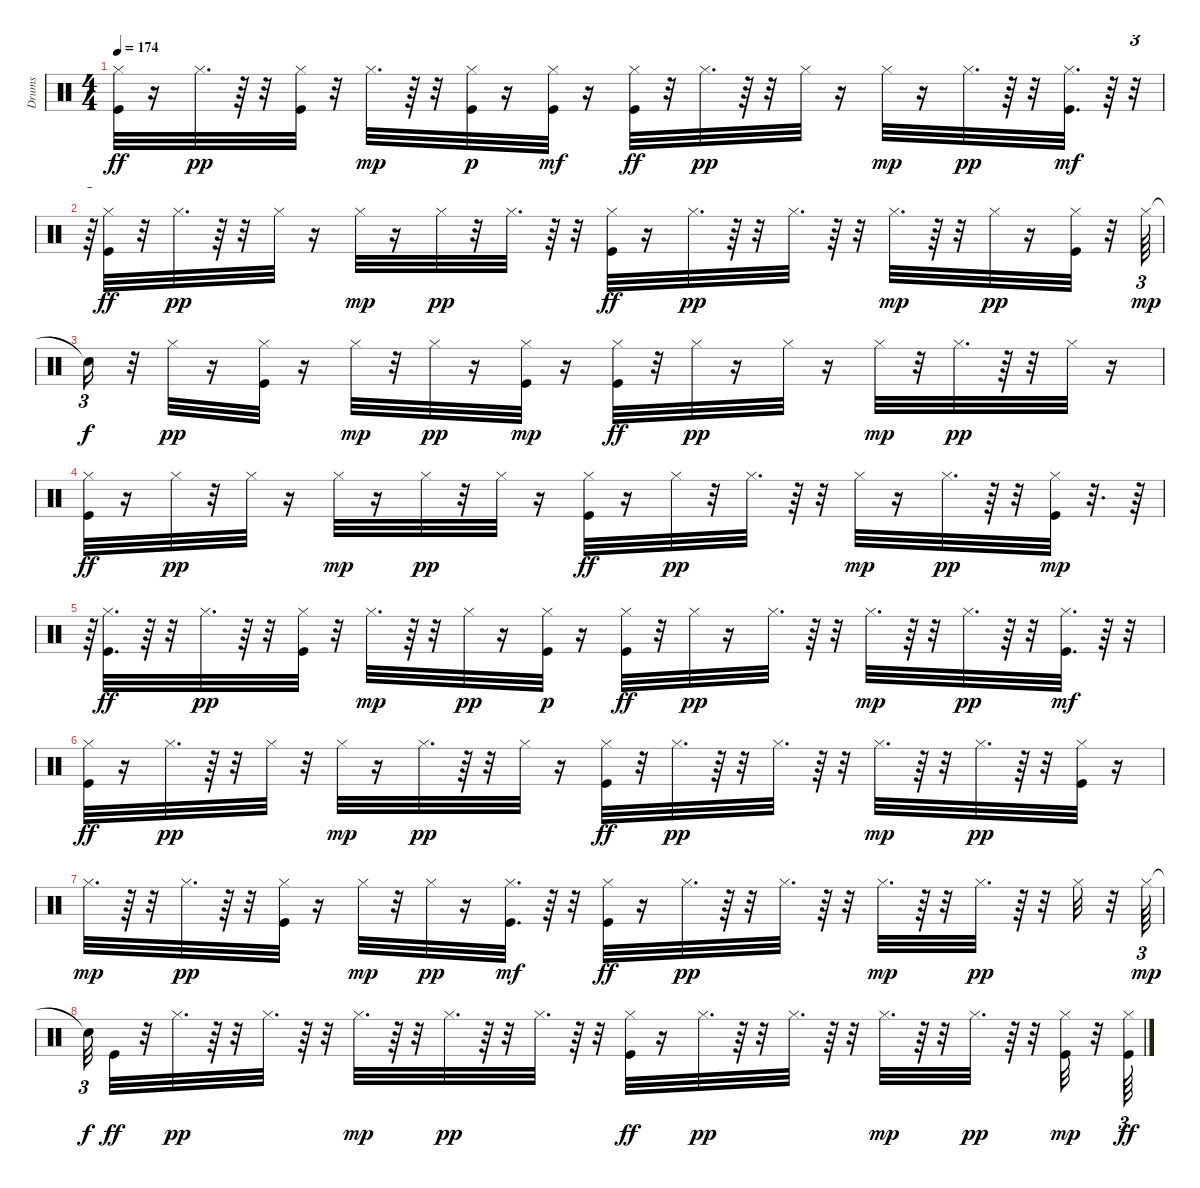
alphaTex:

\track ("Drums" "Drums") {instrument percussion}
\staff {score}
\articulation defaults
\ts (4 4)
\tempo 174
\clef neutral
\ks c
("Hi-Hat (closed)" "Kick (hit)").32{dy ff} r.16 "Hi-Hat (closed)".32{d dy pp} r.64 r.32 ("Hi-Hat (closed)" "Kick (hit)").32 r.32 "Hi-Hat (closed)".32{d dy mp} r.64 r.32 ("Hi-Hat (closed)" "Kick (hit)").32{dy p} r.16 ("Hi-Hat (closed)" "Kick (hit)").32{dy mf} r.16 ("Hi-Hat (closed)" "Kick (hit)").32{dy ff} r.32 "Hi-Hat (closed)".32{d dy pp} r.64 r.32 "Hi-Hat (closed)".32 r.16 "Hi-Hat (closed)".32{dy mp} r.16 "Hi-Hat (closed)".32{d dy pp} r.64 r.32 ("Hi-Hat (closed)" "Kick (hit)").32{d dy mf} r.64 r.32{tu (3 2)} |
r.64{tu (3 2)} ("Hi-Hat (closed)" "Kick (hit)").32{dy ff} r.32 "Hi-Hat (closed)".32{d dy pp} r.64 r.32 "Hi-Hat (closed)".32 r.16 "Hi-Hat (closed)".32{dy mp} r.16 "Hi-Hat (closed)".32{dy pp} r.32 "Hi-Hat (closed)".32{d} r.64 r.32 ("Hi-Hat (closed)" "Kick (hit)").32{dy ff} r.16 "Hi-Hat (closed)".32{d dy pp} r.64 r.32 "Hi-Hat (closed)".32{d} r.64 r.32 "Hi-Hat (closed)".32{d dy mp} r.64 r.32 "Hi-Hat (closed)".32{dy pp} r.16 ("Hi-Hat (closed)" "Kick (hit)").32 r.32 "Hi-Hat (closed)".64{tu (3 2) dy mp} |
"Snare (hit)"{t}.16{tu (3 2) dy f} r.32 "Hi-Hat (closed)".32{dy pp} r.16 ("Hi-Hat (closed)" "Kick (hit)").32 r.16 "Hi-Hat (closed)".32{dy mp} r.32 "Hi-Hat (closed)".32{dy pp} r.16 ("Hi-Hat (closed)" "Kick (hit)").32{dy mp} r.16 ("Hi-Hat (closed)" "Kick (hit)").32{dy ff} r.32 "Hi-Hat (closed)".32{dy pp} r.16 "Hi-Hat (closed)".32 r.16 "Hi-Hat (closed)".32{dy mp} r.32 "Hi-Hat (closed)".32{d dy pp} r.64 r.32 "Hi-Hat (closed)".32 r.16 |
("Hi-Hat (closed)" "Kick (hit)").32{dy ff} r.16 "Hi-Hat (closed)".32{dy pp} r.32 "Hi-Hat (closed)".32 r.16 "Hi-Hat (closed)".32{dy mp} r.16 "Hi-Hat (closed)".32{dy pp} r.32 "Hi-Hat (closed)".32 r.16 ("Hi-Hat (closed)" "Kick (hit)").32{dy ff} r.16 "Hi-Hat (closed)".32{dy pp} r.32 "Hi-Hat (closed)".32{d} r.64 r.32 "Hi-Hat (closed)".32{dy mp} r.16 "Hi-Hat (closed)".32{d dy pp} r.64 r.32 ("Hi-Hat (closed)" "Kick (hit)").32{dy mp} r.32{d} r.64 |
r.64{tu (3 2)} ("Hi-Hat (closed)" "Kick (hit)").32{d dy ff} r.64 r.32 "Hi-Hat (closed)".32{d dy pp} r.64 r.32 ("Hi-Hat (closed)" "Kick (hit)").32 r.32 "Hi-Hat (closed)".32{d dy mp} r.64 r.32 "Hi-Hat (closed)".32{dy pp} r.16 ("Hi-Hat (closed)" "Kick (hit)").32{dy p} r.16 ("Hi-Hat (closed)" "Kick (hit)").32{dy ff} r.32 "Hi-Hat (closed)".32{dy pp} r.16 "Hi-Hat (closed)".32{d} r.64 r.32 "Hi-Hat (closed)".32{d dy mp} r.64 r.32 "Hi-Hat (closed)".32{d dy pp} r.64 r.32 ("Hi-Hat (closed)" "Kick (hit)").32{d dy mf} r.64 r.32 |
("Hi-Hat (closed)" "Kick (hit)").32{dy ff} r.16 "Hi-Hat (closed)".32{d dy pp} r.64 r.32 "Hi-Hat (closed)".32 r.32 "Hi-Hat (closed)".32{dy mp} r.16 "Hi-Hat (closed)".32{d dy pp} r.64 r.32 "Hi-Hat (closed)".32 r.16 ("Hi-Hat (closed)" "Kick (hit)").32{dy ff} r.32 "Hi-Hat (closed)".32{d dy pp} r.64 r.32 "Hi-Hat (closed)".32{d} r.64 r.32 "Hi-Hat (closed)".32{d dy mp} r.64 r.32 "Hi-Hat (closed)".32{d dy pp} r.64 r.32 ("Hi-Hat (closed)" "Kick (hit)").32 r.16 |
"Hi-Hat (closed)".32{d dy mp} r.64 r.32 "Hi-Hat (closed)".32{d dy pp} r.64 r.32 ("Hi-Hat (closed)" "Kick (hit)").32 r.16 "Hi-Hat (closed)".32{dy mp} r.32 "Hi-Hat (closed)".32{dy pp} r.16 ("Hi-Hat (closed)" "Kick (hit)").32{d dy mf} r.64 r.32 ("Hi-Hat (closed)" "Kick (hit)").32{dy ff} r.16 "Hi-Hat (closed)".32{d dy pp} r.64 r.32 "Hi-Hat (closed)".32{d} r.64 r.32 "Hi-Hat (closed)".32{d dy mp} r.64 r.32 "Hi-Hat (closed)".32{d dy pp} r.64 r.32 "Hi-Hat (closed)".32 r.32 "Hi-Hat (closed)".64{tu (3 2) dy mp} |
"Snare (hit)"{t}.32{tu (3 2) dy f} "Kick (hit)".32{dy ff} r.32 "Hi-Hat (closed)".32{d dy pp} r.64 r.32 "Hi-Hat (closed)".32{d} r.64 r.32 "Hi-Hat (closed)".32{d dy mp} r.64 r.32 "Hi-Hat (closed)".32{d dy pp} r.64 r.32 "Hi-Hat (closed)".32{d} r.64 r.32 ("Hi-Hat (closed)" "Kick (hit)").32{dy ff} r.16 "Hi-Hat (closed)".32{d dy pp} r.64 r.32 "Hi-Hat (closed)".32{d} r.64 r.32 "Hi-Hat (closed)".32{d dy mp} r.64 r.32 "Hi-Hat (closed)".32{d dy pp} r.64 r.32 ("Hi-Hat (closed)" "Kick (hit)").32{dy mp} r.32 ("Hi-Hat (closed)" "Kick (hit)").64{tu (3 2) dy ff}
